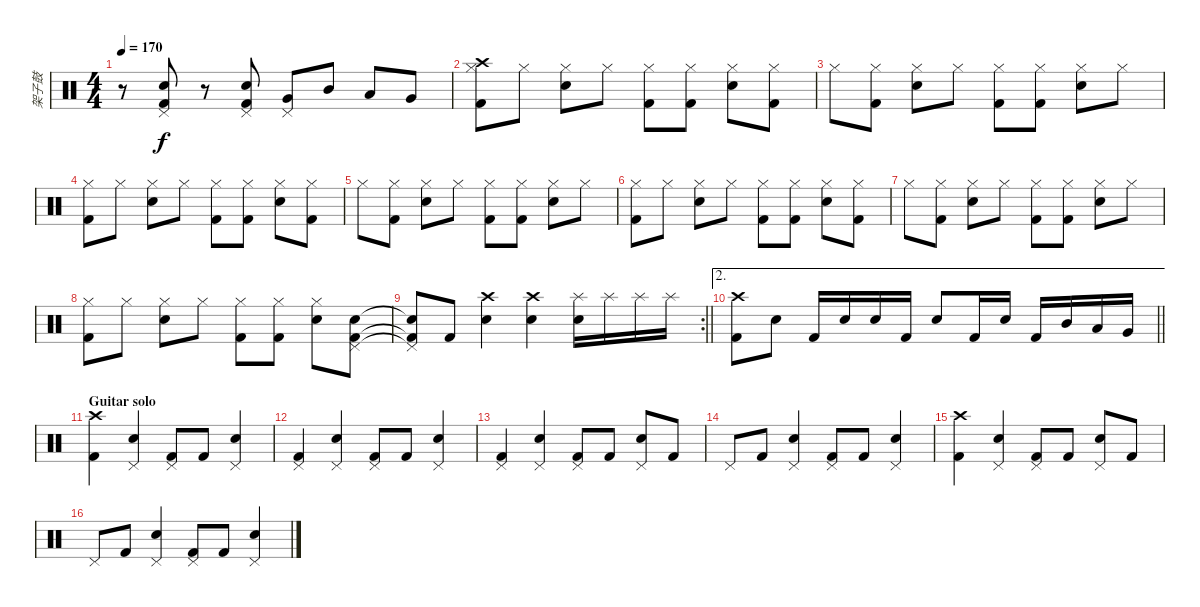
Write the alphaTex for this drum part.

\track ("架子鼓" "架子鼓") {instrument percussion}
\staff {score}
\articulation defaults
\ts (4 4)
\tempo 170
\clef neutral
\ks c
r.8{dy f} ("Pedal Hi-Hat (hit)" "Snare (hit) 2" "Kick (hit) 2").8 r.8 ("Pedal Hi-Hat (hit)" "Snare (hit) 2" "Kick (hit) 2").8 ("Pedal Hi-Hat (hit)" "Very Low Tom (hit)").8 "Mid Tom (hit)".8 "Low Tom (hit)".8 "Very Low Tom (hit)".8 |
("Hi-Hat (closed)" "Crash high (hit)" "Kick (hit) 2").8 "Hi-Hat (closed)".8 ("Hi-Hat (closed)" "Snare (hit) 2").8 "Hi-Hat (closed)".8 ("Hi-Hat (closed)" "Kick (hit) 2").8 ("Hi-Hat (closed)" "Kick (hit) 2").8 ("Hi-Hat (closed)" "Snare (hit) 2").8 ("Hi-Hat (closed)" "Kick (hit) 2").8 |
"Hi-Hat (closed)".8 ("Hi-Hat (closed)" "Kick (hit) 2").8 ("Hi-Hat (closed)" "Snare (hit) 2").8 "Hi-Hat (closed)".8 ("Hi-Hat (closed)" "Kick (hit) 2").8 ("Hi-Hat (closed)" "Kick (hit) 2").8 ("Hi-Hat (closed)" "Snare (hit) 2").8 "Hi-Hat (closed)".8 |
("Hi-Hat (closed)" "Kick (hit) 2").8 "Hi-Hat (closed)".8 ("Hi-Hat (closed)" "Snare (hit) 2").8 "Hi-Hat (closed)".8 ("Hi-Hat (closed)" "Kick (hit) 2").8 ("Hi-Hat (closed)" "Kick (hit) 2").8 ("Hi-Hat (closed)" "Snare (hit) 2").8 ("Hi-Hat (closed)" "Kick (hit) 2").8 |
"Hi-Hat (closed)".8 ("Hi-Hat (closed)" "Kick (hit) 2").8 ("Hi-Hat (closed)" "Snare (hit) 2").8 "Hi-Hat (closed)".8 ("Hi-Hat (closed)" "Kick (hit) 2").8 ("Hi-Hat (closed)" "Kick (hit) 2").8 ("Hi-Hat (closed)" "Snare (hit) 2").8 "Hi-Hat (closed)".8 |
("Hi-Hat (closed)" "Kick (hit) 2").8 "Hi-Hat (closed)".8 ("Hi-Hat (closed)" "Snare (hit) 2").8 "Hi-Hat (closed)".8 ("Hi-Hat (closed)" "Kick (hit) 2").8 ("Hi-Hat (closed)" "Kick (hit) 2").8 ("Hi-Hat (closed)" "Snare (hit) 2").8 ("Hi-Hat (closed)" "Kick (hit) 2").8 |
"Hi-Hat (closed)".8 ("Hi-Hat (closed)" "Kick (hit) 2").8 ("Hi-Hat (closed)" "Snare (hit) 2").8 "Hi-Hat (closed)".8 ("Hi-Hat (closed)" "Kick (hit) 2").8 ("Hi-Hat (closed)" "Kick (hit) 2").8 ("Hi-Hat (closed)" "Snare (hit) 2").8 "Hi-Hat (closed)".8 |
("Hi-Hat (closed)" "Kick (hit) 2").8 "Hi-Hat (closed)".8 ("Hi-Hat (closed)" "Snare (hit) 2").8 "Hi-Hat (closed)".8 ("Hi-Hat (closed)" "Kick (hit) 2").8 ("Hi-Hat (closed)" "Kick (hit) 2").8 ("Hi-Hat (closed)" "Snare (hit) 2").8 ("Pedal Hi-Hat (hit)" "Snare (hit) 2" "Kick (hit) 2").8 |
\rc 2
\barLineRight lightlight
("Pedal Hi-Hat (hit)"{t} "Snare (hit) 2"{t} "Kick (hit) 2"{t}).8 "Kick (hit) 2".8 ("Crash high (hit)" "Snare (hit) 2").4 ("Crash high (hit)" "Snare (hit) 2").4 ("Splash (hit)" "Snare (hit) 2").16 "Splash (hit)".16 "Splash (hit)".16 "Splash (hit)".16 |
\ae 2
\barLineRight lightlight
("Crash high (hit)" "Kick (hit) 2").8 "Snare (hit) 2".8 "Kick (hit) 2".16 "Snare (hit) 2".16 "Snare (hit) 2".16 "Kick (hit) 2".16 "Snare (hit) 2".8 "Kick (hit) 2".16 "Snare (hit) 2".16 "Kick (hit) 2".16 "Mid Tom (hit)".16 "Low Tom (hit)".16 "Very Low Tom (hit)".16 |
\section ("" "Guitar solo")
("Crash high (hit)" "Kick (hit) 2").4 ("Pedal Hi-Hat (hit)" "Snare (hit) 2").4 ("Pedal Hi-Hat (hit)" "Kick (hit) 2").8 "Kick (hit) 2".8 ("Pedal Hi-Hat (hit)" "Snare (hit) 2").4 |
("Pedal Hi-Hat (hit)" "Kick (hit) 2").4 ("Pedal Hi-Hat (hit)" "Snare (hit) 2").4 ("Pedal Hi-Hat (hit)" "Kick (hit) 2").8 "Kick (hit) 2".8 ("Pedal Hi-Hat (hit)" "Snare (hit) 2").4 |
("Pedal Hi-Hat (hit)" "Kick (hit) 2").4 ("Pedal Hi-Hat (hit)" "Snare (hit) 2").4 ("Pedal Hi-Hat (hit)" "Kick (hit) 2").8 "Kick (hit) 2".8 ("Pedal Hi-Hat (hit)" "Snare (hit) 2").8 "Kick (hit) 2".8 |
"Pedal Hi-Hat (hit)".8 "Kick (hit) 2".8 ("Pedal Hi-Hat (hit)" "Snare (hit) 2").4 ("Pedal Hi-Hat (hit)" "Kick (hit) 2").8 "Kick (hit) 2".8 ("Pedal Hi-Hat (hit)" "Snare (hit) 2").4 |
("Crash high (hit)" "Kick (hit) 2").4 ("Pedal Hi-Hat (hit)" "Snare (hit) 2").4 ("Pedal Hi-Hat (hit)" "Kick (hit) 2").8 "Kick (hit) 2".8 ("Pedal Hi-Hat (hit)" "Snare (hit) 2").8 "Kick (hit) 2".8 |
"Pedal Hi-Hat (hit)".8 "Kick (hit) 2".8 ("Pedal Hi-Hat (hit)" "Snare (hit) 2").4 ("Pedal Hi-Hat (hit)" "Kick (hit) 2").8 "Kick (hit) 2".8 ("Pedal Hi-Hat (hit)" "Snare (hit) 2").4
